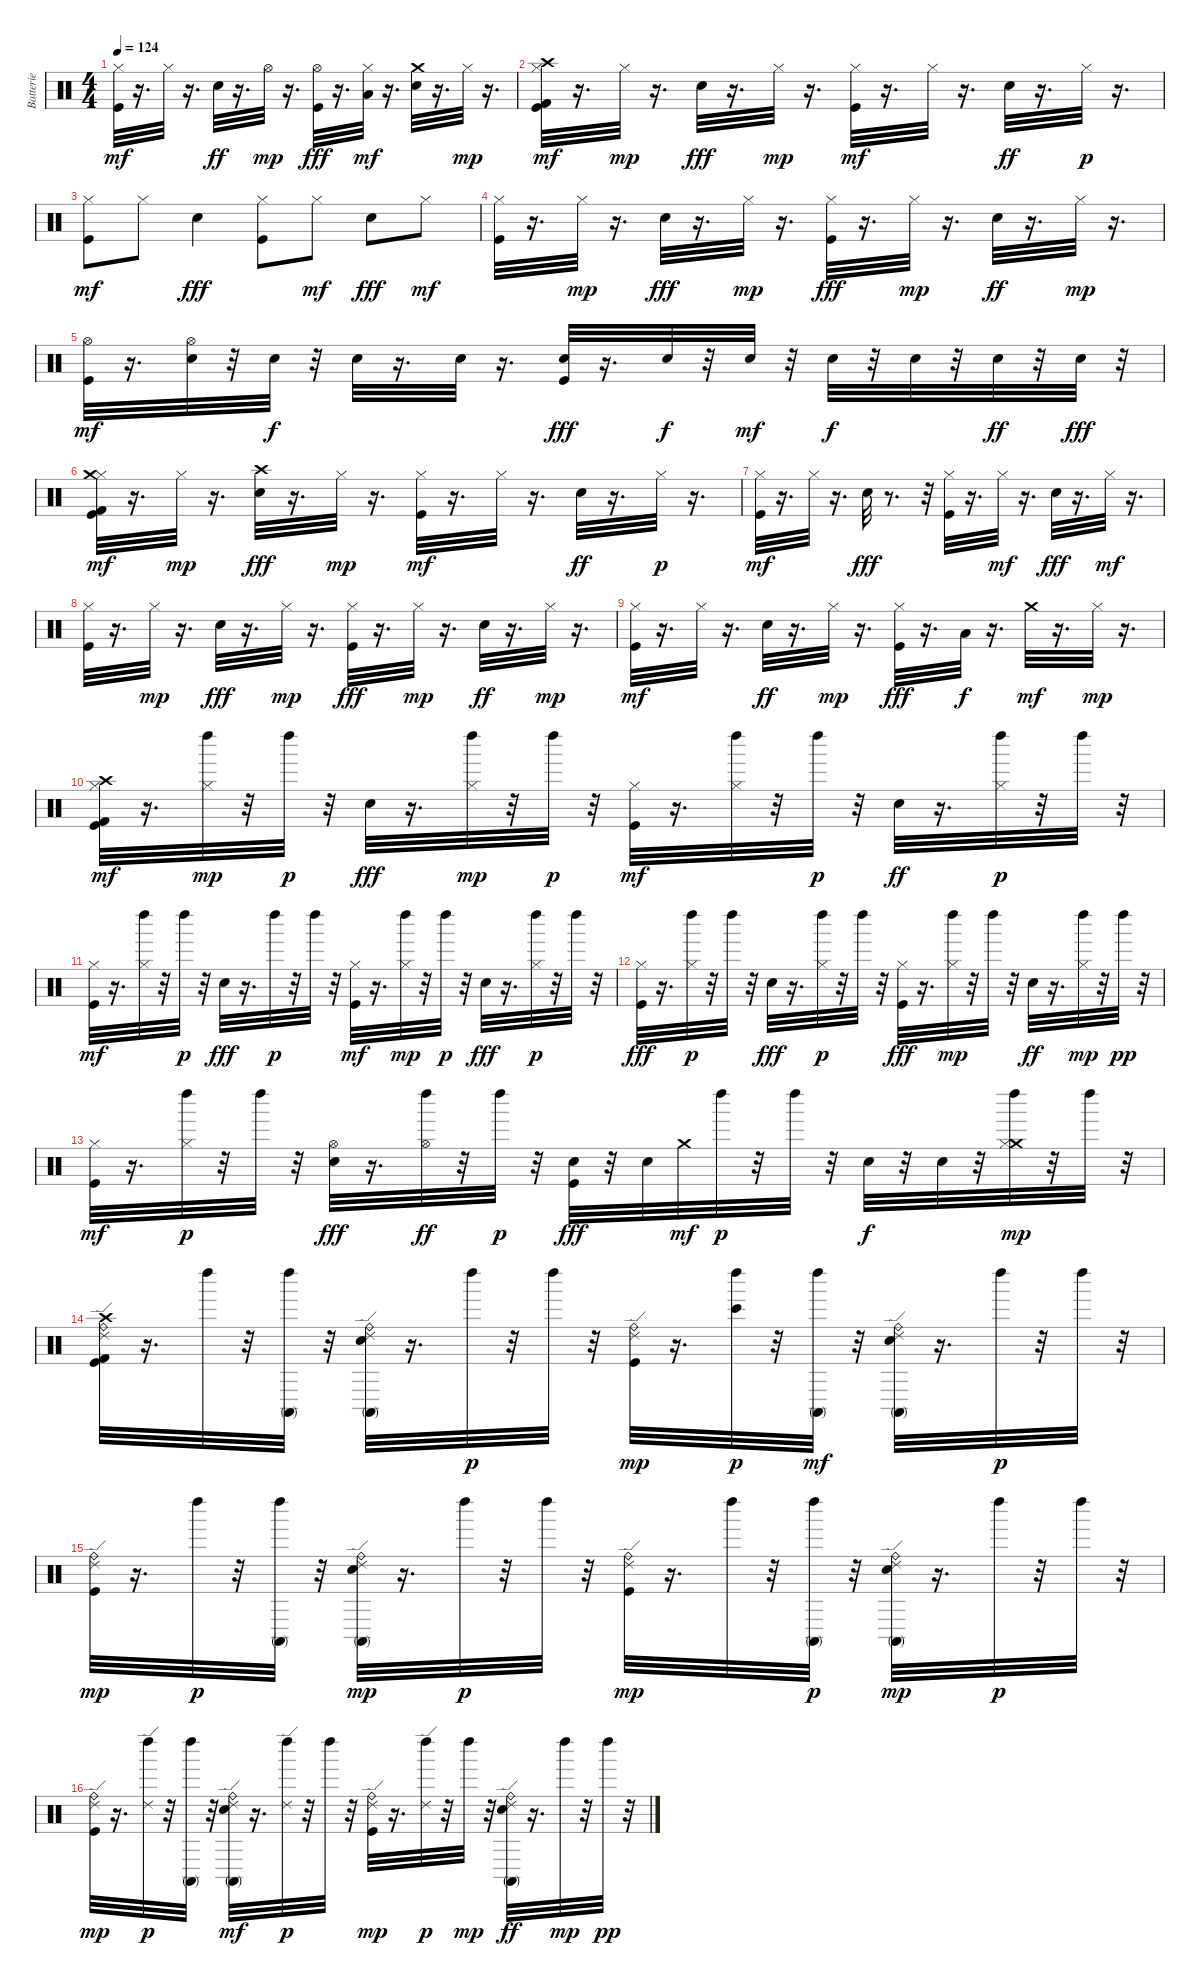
\track ("Batterie" "Batterie") {instrument percussion}
\staff {score}
\articulation defaults
\ts (4 4)
\tempo 124
\clef neutral
\ks c
("Kick (hit)" "Hi-Hat (closed)").32{dy mf} r.16{d} "Hi-Hat (closed)".32 r.16{d} "Electric Snare (hit)".32{dy ff} r.16{d} "Hi-Hat (open)".32{dy mp} r.16{d} ("Hi-Hat (open)" "Kick (hit)").32{dy fff} r.16{d} ("Low Tom (hit)" "Hi-Hat (closed)").32{dy mf} r.16{d} ("Electric Snare (hit)" "Crash medium (hit)").32 r.16{d} "Hi-Hat (closed)".32{dy mp} r.16{d} |
("Kick (hit)" "Kick (hit) 2" "Hi-Hat (closed)" "Crash high (hit)").32{dy mf} r.16{d} "Hi-Hat (closed)".32{dy mp} r.16{d} "Electric Snare (hit)".32{dy fff} r.16{d} "Hi-Hat (closed)".32{dy mp} r.16{d} ("Kick (hit)" "Hi-Hat (closed)").32{dy mf} r.16{d} "Hi-Hat (closed)".32 r.16{d} "Electric Snare (hit)".32{dy ff} r.16{d} "Hi-Hat (closed)".32{dy p} r.16{d} |
("Kick (hit)" "Hi-Hat (closed)").8{dy mf} "Hi-Hat (closed)".8 "Electric Snare (hit)".4{dy fff} ("Hi-Hat (closed)" "Kick (hit)").8 "Hi-Hat (closed)".8{dy mf} "Electric Snare (hit)".8{dy fff} "Hi-Hat (closed)".8{dy mf} |
("Kick (hit)" "Hi-Hat (closed)").32 r.16{d} "Hi-Hat (closed)".32{dy mp} r.16{d} "Electric Snare (hit)".32{dy fff} r.16{d} "Hi-Hat (closed)".32{dy mp} r.16{d} ("Kick (hit)" "Hi-Hat (closed)").32{dy fff} r.16{d} "Hi-Hat (closed)".32{dy mp} r.16{d} "Electric Snare (hit)".32{dy ff} r.16{d} "Hi-Hat (closed)".32{dy mp} r.16{d} |
("Kick (hit)" "Hi-Hat (open)").32{dy mf} r.16{d} ("Hi-Hat (open)" "Electric Snare (hit)").32 r.32 "Electric Snare (hit)".32{dy f} r.32 "Electric Snare (hit)".32 r.16{d} "Electric Snare (hit)".32 r.16{d} ("Electric Snare (hit)" "Kick (hit)").32{dy fff} r.16{d} "Electric Snare (hit)".32{dy f} r.32 "Electric Snare (hit)".32{dy mf} r.32 "Electric Snare (hit)".32{dy f} r.32 "Electric Snare (hit)".32 r.32 "Electric Snare (hit)".32{dy ff} r.32 "Electric Snare (hit)".32{dy fff} r.32 |
("Kick (hit)" "Kick (hit) 2" "Hi-Hat (closed)" "Crash medium (hit)").32{dy mf} r.16{d} "Hi-Hat (closed)".32{dy mp} r.16{d} ("Electric Snare (hit)" "Crash high (hit)").32{dy fff} r.16{d} "Hi-Hat (closed)".32{dy mp} r.16{d} ("Kick (hit)" "Hi-Hat (closed)").32{dy mf} r.16{d} "Hi-Hat (closed)".32 r.16{d} "Electric Snare (hit)".32{dy ff} r.16{d} "Hi-Hat (closed)".32{dy p} r.16{d} |
("Kick (hit)" "Hi-Hat (closed)").32{dy mf} r.16{d} "Hi-Hat (closed)".32 r.16{d} "Electric Snare (hit)".32{dy fff} r.8{d} r.32 ("Hi-Hat (closed)" "Kick (hit)").32 r.16{d} "Hi-Hat (closed)".32{dy mf} r.16{d} "Electric Snare (hit)".32{dy fff} r.16{d} "Hi-Hat (closed)".32{dy mf} r.16{d} |
("Kick (hit)" "Hi-Hat (closed)").32 r.16{d} "Hi-Hat (closed)".32{dy mp} r.16{d} "Electric Snare (hit)".32{dy fff} r.16{d} "Hi-Hat (closed)".32{dy mp} r.16{d} ("Kick (hit)" "Hi-Hat (closed)").32{dy fff} r.16{d} "Hi-Hat (closed)".32{dy mp} r.16{d} "Electric Snare (hit)".32{dy ff} r.16{d} "Hi-Hat (closed)".32{dy mp} r.16{d} |
("Kick (hit)" "Hi-Hat (closed)").32{dy mf} r.16{d} "Hi-Hat (closed)".32 r.16{d} "Electric Snare (hit)".32{dy ff} r.16{d} "Hi-Hat (closed)".32{dy mp} r.16{d} ("Hi-Hat (closed)" "Kick (hit)").32{dy fff} r.16{d} "Low Tom (hit)".32{dy f} r.16{d} "Crash medium (hit)".32{dy mf} r.16{d} "Hi-Hat (closed)".32{dy mp} r.16{d} |
("Kick (hit)" "Kick (hit) 2" "Hi-Hat (closed)" "Crash high (hit)").32{dy mf} r.16{d} ("Left Maraca (hit)" "Hi-Hat (closed)").32{dy mp} r.32 "Left Maraca (hit)".32{dy p} r.32 "Electric Snare (hit)".32{dy fff} r.16{d} ("Left Maraca (hit)" "Hi-Hat (closed)").32{dy mp} r.32 "Left Maraca (hit)".32{dy p} r.32 ("Kick (hit)" "Hi-Hat (closed)").32{dy mf} r.16{d} ("Left Maraca (hit)" "Hi-Hat (closed)").32 r.32 "Left Maraca (hit)".32{dy p} r.32 "Electric Snare (hit)".32{dy ff} r.16{d} ("Left Maraca (hit)" "Hi-Hat (closed)").32{dy p} r.32 "Left Maraca (hit)".32 r.32 |
("Kick (hit)" "Hi-Hat (closed)").32{dy mf} r.16{d} ("Left Maraca (hit)" "Hi-Hat (closed)").32 r.32 "Left Maraca (hit)".32{dy p} r.32 "Electric Snare (hit)".32{dy fff} r.16{d} "Left Maraca (hit)".32{dy p} r.32 "Left Maraca (hit)".32 r.32 ("Kick (hit)" "Hi-Hat (closed)").32{dy mf} r.16{d} ("Hi-Hat (closed)" "Left Maraca (hit)").32{dy mp} r.32 "Left Maraca (hit)".32{dy p} r.32 "Electric Snare (hit)".32{dy fff} r.16{d} ("Hi-Hat (closed)" "Left Maraca (hit)").32{dy p} r.32 "Left Maraca (hit)".32 r.32 |
("Hi-Hat (closed)" "Kick (hit)").32{dy fff} r.16{d} ("Hi-Hat (closed)" "Left Maraca (hit)").32{dy p} r.32 "Left Maraca (hit)".32 r.32 "Electric Snare (hit)".32{dy fff} r.16{d} ("Hi-Hat (closed)" "Left Maraca (hit)").32{dy p} r.32 "Left Maraca (hit)".32 r.32 ("Kick (hit)" "Hi-Hat (closed)").32{dy fff} r.16{d} ("Left Maraca (hit)" "Hi-Hat (closed)").32{dy mp} r.32 "Left Maraca (hit)".32 r.32 "Electric Snare (hit)".32{dy ff} r.16{d} ("Hi-Hat (closed)" "Left Maraca (hit)").32{dy mp} r.32 "Left Maraca (hit)".32{dy pp} r.32 |
("Kick (hit)" "Hi-Hat (closed)").32{dy mf} r.16{d} ("Hi-Hat (closed)" "Left Maraca (hit)").32{dy p} r.32 "Left Maraca (hit)".32 r.32 ("Electric Snare (hit)" "Hi-Hat (open)").32{dy fff} r.16{d} ("Left Maraca (hit)" "Hi-Hat (open)").32{dy ff} r.32 "Left Maraca (hit)".32{dy p} r.32 ("Electric Snare (hit)" "Kick (hit)").32{dy fff} r.32 "Electric Snare (hit)".32 "Crash medium (hit)".32{dy mf} "Left Maraca (hit)".32{dy p} r.32 "Left Maraca (hit)".32 r.32 "Electric Snare (hit)".32{dy f} r.32 "Electric Snare (hit)".32 r.32 ("Crash medium (hit)" "Left Maraca (hit)" "Hi-Hat (closed)").32{dy mp} r.32 "Left Maraca (hit)".32 r.32 |
("Ride (edge) 2" "Crash high (hit)" "Kick (hit)" "Kick (hit) 2" "Ride (bell)").32 r.16{d} "Left Maraca (hit)".32 r.32 ("Left Maraca (hit)" "Conga high (mute)").32 r.32 ("Ride (edge) 2" "Electric Snare (hit)" "Ride (bell)" "Conga high (mute)").32 r.16{d} "Left Maraca (hit)".32{dy p} r.32 "Left Maraca (hit)".32 r.32 ("Kick (hit)" "Ride (edge) 2" "Ride (bell)").32{dy mp} r.16{d} ("Left Maraca (hit)" "Bongo High (hit)").32{dy p} r.32 ("Left Maraca (hit)" "Conga high (mute)").32{dy mf} r.32 ("Ride (edge) 2" "Electric Snare (hit)" "Conga high (mute)" "Ride (bell)").32 r.16{d} "Left Maraca (hit)".32{dy p} r.32 "Left Maraca (hit)".32 r.32 |
("Kick (hit)" "Ride (edge) 2" "Ride (bell)").32{dy mp} r.16{d} "Left Maraca (hit)".32{dy p} r.32 ("Conga high (mute)" "Left Maraca (hit)").32 r.32 ("Electric Snare (hit)" "Ride (edge) 2" "Conga high (mute)" "Ride (bell)").32{dy mp} r.16{d} "Left Maraca (hit)".32{dy p} r.32 "Left Maraca (hit)".32 r.32 ("Kick (hit)" "Ride (edge) 2" "Ride (bell)").32{dy mp} r.16{d} "Left Maraca (hit)".32 r.32 ("Conga high (mute)" "Left Maraca (hit)").32{dy p} r.32 ("Ride (edge) 2" "Electric Snare (hit)" "Conga high (mute)" "Ride (bell)").32{dy mp} r.16{d} "Left Maraca (hit)".32{dy p} r.32 "Left Maraca (hit)".32 r.32 |
("Ride (edge) 2" "Kick (hit)" "Ride (bell)").32{dy mp} r.16{d} ("Ride (edge) 2" "Left Maraca (hit)").32{dy p} r.32 ("Conga high (mute)" "Left Maraca (hit)").32 r.32 ("Electric Snare (hit)" "Conga high (mute)" "Ride (edge) 2" "Ride (bell)").32{dy mf} r.16{d} ("Ride (edge) 2" "Left Maraca (hit)").32{dy p} r.32 "Left Maraca (hit)".32 r.32 ("Kick (hit)" "Ride (edge) 2" "Ride (bell)").32{dy mp} r.16{d} ("Ride (edge) 2" "Left Maraca (hit)").32{dy p} r.32 "Left Maraca (hit)".32{dy mp} r.32 ("Ride (edge) 2" "Ride (bell)" "Conga high (mute)" "Electric Snare (hit)").32{dy ff} r.16{d} "Left Maraca (hit)".32{dy mp} r.32 "Left Maraca (hit)".32{dy pp} r.32
